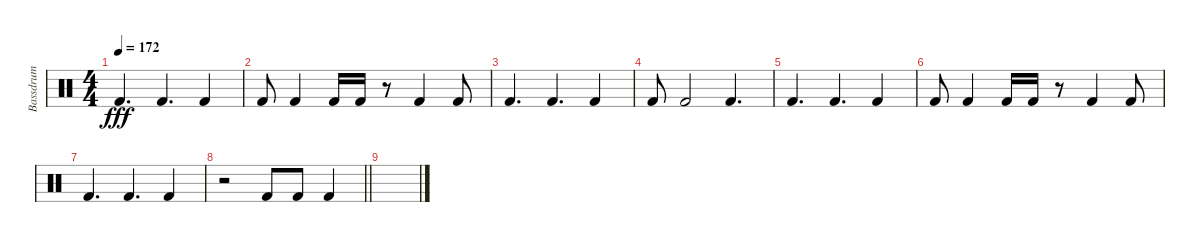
\track ("Bassdrum" "Bassdrum") {instrument percussion}
\staff {score}
\articulation defaults
\ts (4 4)
\tempo 172
\clef neutral
\ks c "Kick (hit) 2".4{d dy fff} "Kick (hit) 2".4{d} "Kick (hit) 2".4
|
"Kick (hit) 2".8 "Kick (hit) 2".4 "Kick (hit) 2".16 "Kick (hit) 2".16 r.8 "Kick (hit) 2".4 "Kick (hit) 2".8 |
"Kick (hit) 2".4{d} "Kick (hit) 2".4{d} "Kick (hit) 2".4 |
"Kick (hit) 2".8 "Kick (hit) 2".2 "Kick (hit) 2".4{d} |
"Kick (hit) 2".4{d} "Kick (hit) 2".4{d} "Kick (hit) 2".4 |
"Kick (hit) 2".8 "Kick (hit) 2".4 "Kick (hit) 2".16 "Kick (hit) 2".16 r.8 "Kick (hit) 2".4 "Kick (hit) 2".8 |
"Kick (hit) 2".4{d} "Kick (hit) 2".4{d} "Kick (hit) 2".4 |
\barLineRight lightlight
r.2 "Kick (hit) 2".8 "Kick (hit) 2".8 "Kick (hit) 2".4 |
\section ("" "")
